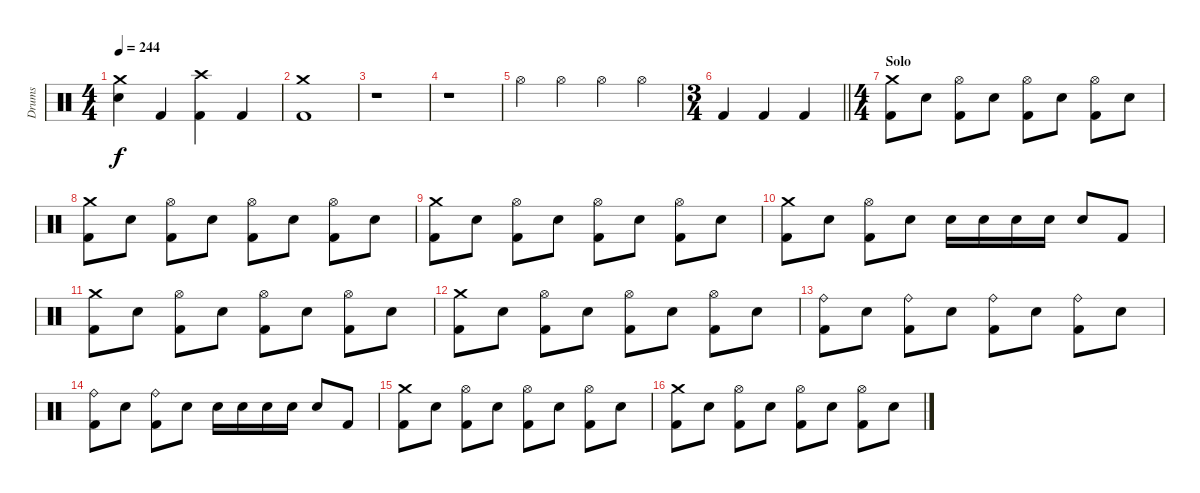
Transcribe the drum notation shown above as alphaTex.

\track ("Drums" "Drums") {instrument percussion}
\staff
\articulation defaults
\ts (4 4)
\tempo 244
\clef neutral
\ks c
("Crash medium (hit)" "Electric Snare (hit)").4{dy f} "Kick (hit) 2".4 ("Crash high (hit)" "Kick (hit) 2").4 "Kick (hit) 2".4 |
("Crash medium (hit)" "Kick (hit) 2").1 |
r.1 |
r.1 |
"Hi-Hat (open)".4 "Hi-Hat (open)".4 "Hi-Hat (open)".4 "Hi-Hat (open)".4 |
\ts (3 4)
\barLineRight lightlight "Kick (hit) 2".4 "Kick (hit) 2".4 "Kick (hit) 2".4
|
\ts (4 4)
\section ("" "Solo")
("Crash medium (hit)" "Kick (hit) 2").8 "Electric Snare (hit)".8 ("Hi-Hat (open)" "Kick (hit) 2").8 "Electric Snare (hit)".8 ("Hi-Hat (open)" "Kick (hit) 2").8 "Electric Snare (hit)".8 ("Hi-Hat (open)" "Kick (hit) 2").8 "Electric Snare (hit)".8 |
("Crash medium (hit)" "Kick (hit) 2").8 "Electric Snare (hit)".8 ("Hi-Hat (open)" "Kick (hit) 2").8 "Electric Snare (hit)".8 ("Hi-Hat (open)" "Kick (hit) 2").8 "Electric Snare (hit)".8 ("Hi-Hat (open)" "Kick (hit) 2").8 "Electric Snare (hit)".8 |
("Crash medium (hit)" "Kick (hit) 2").8 "Electric Snare (hit)".8 ("Hi-Hat (open)" "Kick (hit) 2").8 "Electric Snare (hit)".8 ("Hi-Hat (open)" "Kick (hit) 2").8 "Electric Snare (hit)".8 ("Hi-Hat (open)" "Kick (hit) 2").8 "Electric Snare (hit)".8 |
("Crash medium (hit)" "Kick (hit) 2").8 "Electric Snare (hit)".8 ("Hi-Hat (open)" "Kick (hit) 2").8 "Electric Snare (hit)".8 "Electric Snare (hit)".16 "Electric Snare (hit)".16 "Electric Snare (hit)".16 "Electric Snare (hit)".16 "Electric Snare (hit)".8 "Kick (hit) 2".8 |
("Crash medium (hit)" "Kick (hit) 2").8 "Electric Snare (hit)".8 ("Hi-Hat (open)" "Kick (hit) 2").8 "Electric Snare (hit)".8 ("Hi-Hat (open)" "Kick (hit) 2").8 "Electric Snare (hit)".8 ("Hi-Hat (open)" "Kick (hit) 2").8 "Electric Snare (hit)".8 |
("Crash medium (hit)" "Kick (hit) 2").8 "Electric Snare (hit)".8 ("Hi-Hat (open)" "Kick (hit) 2").8 "Electric Snare (hit)".8 ("Hi-Hat (open)" "Kick (hit) 2").8 "Electric Snare (hit)".8 ("Hi-Hat (open)" "Kick (hit) 2").8 "Electric Snare (hit)".8 |
("Ride (bell)" "Kick (hit) 2").8 "Electric Snare (hit)".8 ("Ride (bell)" "Kick (hit) 2").8 "Electric Snare (hit)".8 ("Ride (bell)" "Kick (hit) 2").8 "Electric Snare (hit)".8 ("Ride (bell)" "Kick (hit) 2").8 "Electric Snare (hit)".8 |
("Ride (bell)" "Kick (hit) 2").8 "Electric Snare (hit)".8 ("Ride (bell)" "Kick (hit) 2").8 "Electric Snare (hit)".8 "Electric Snare (hit)".16 "Electric Snare (hit)".16 "Electric Snare (hit)".16 "Electric Snare (hit)".16 "Electric Snare (hit)".8 "Kick (hit) 2".8 |
("Crash medium (hit)" "Kick (hit) 2").8 "Electric Snare (hit)".8 ("Hi-Hat (open)" "Kick (hit) 2").8 "Electric Snare (hit)".8 ("Hi-Hat (open)" "Kick (hit) 2").8 "Electric Snare (hit)".8 ("Hi-Hat (open)" "Kick (hit) 2").8 "Electric Snare (hit)".8 |
("Crash medium (hit)" "Kick (hit) 2").8 "Electric Snare (hit)".8 ("Hi-Hat (open)" "Kick (hit) 2").8 "Electric Snare (hit)".8 ("Hi-Hat (open)" "Kick (hit) 2").8 "Electric Snare (hit)".8 ("Hi-Hat (open)" "Kick (hit) 2").8 "Electric Snare (hit)".8
